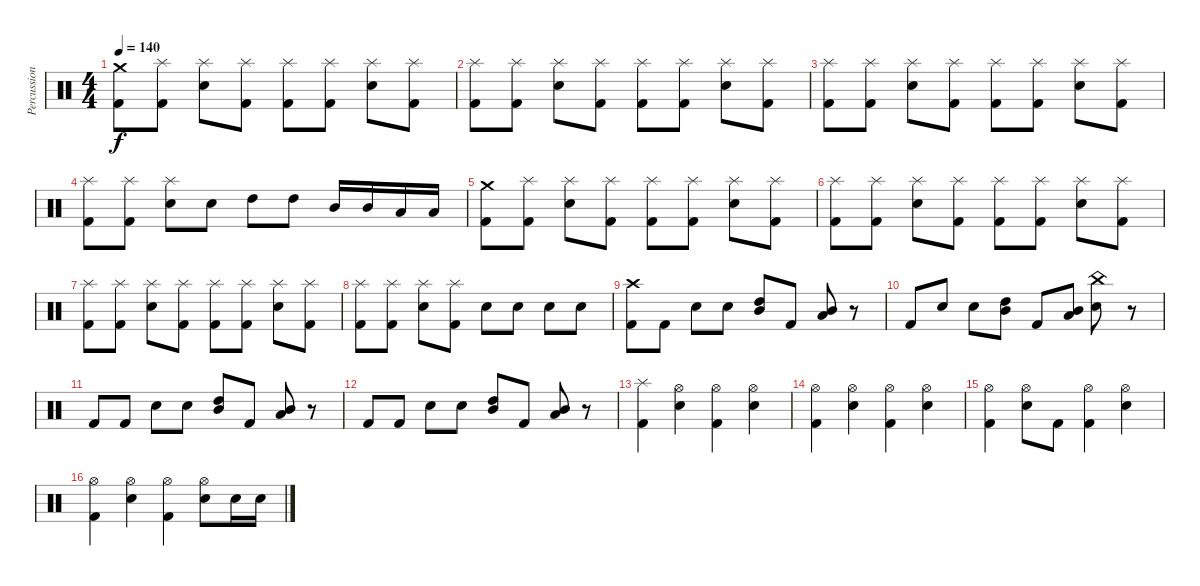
\track ("Percussion" "Percussion") {instrument percussion}
\staff {score}
\articulation defaults
\ts (4 4)
\tempo 140
\clef neutral
\ks c
("Crash medium (hit)" "Kick (hit) 2").8{dy f} ("Splash (hit)" "Kick (hit) 2").8 ("Splash (hit)" "Electric Snare (hit)").8 ("Splash (hit)" "Kick (hit) 2").8 ("Splash (hit)" "Kick (hit) 2").8 ("Splash (hit)" "Kick (hit) 2").8 ("Splash (hit)" "Electric Snare (hit)").8 ("Splash (hit)" "Kick (hit) 2").8 |
("Splash (hit)" "Kick (hit) 2").8 ("Splash (hit)" "Kick (hit) 2").8 ("Splash (hit)" "Electric Snare (hit)").8 ("Splash (hit)" "Kick (hit) 2").8 ("Splash (hit)" "Kick (hit) 2").8 ("Splash (hit)" "Kick (hit) 2").8 ("Splash (hit)" "Electric Snare (hit)").8 ("Splash (hit)" "Kick (hit) 2").8 |
("Splash (hit)" "Kick (hit) 2").8 ("Splash (hit)" "Kick (hit) 2").8 ("Splash (hit)" "Electric Snare (hit)").8 ("Splash (hit)" "Kick (hit) 2").8 ("Splash (hit)" "Kick (hit) 2").8 ("Splash (hit)" "Kick (hit) 2").8 ("Splash (hit)" "Electric Snare (hit)").8 ("Splash (hit)" "Kick (hit) 2").8 |
("Splash (hit)" "Kick (hit) 2").8 ("Splash (hit)" "Kick (hit) 2").8 ("Splash (hit)" "Electric Snare (hit)").8 "Electric Snare (hit)".8 "High Tom (hit)".8 "High Tom (hit)".8 "Mid Tom (hit)".16 "Mid Tom (hit)".16 "Low Tom (hit)".16 "Low Tom (hit)".16 |
("Crash medium (hit)" "Kick (hit) 2").8 ("Splash (hit)" "Kick (hit) 2").8 ("Splash (hit)" "Electric Snare (hit)").8 ("Splash (hit)" "Kick (hit) 2").8 ("Splash (hit)" "Kick (hit) 2").8 ("Splash (hit)" "Kick (hit) 2").8 ("Splash (hit)" "Electric Snare (hit)").8 ("Splash (hit)" "Kick (hit) 2").8 |
("Splash (hit)" "Kick (hit) 2").8 ("Splash (hit)" "Kick (hit) 2").8 ("Splash (hit)" "Electric Snare (hit)").8 ("Splash (hit)" "Kick (hit) 2").8 ("Splash (hit)" "Kick (hit) 2").8 ("Splash (hit)" "Kick (hit) 2").8 ("Splash (hit)" "Electric Snare (hit)").8 ("Splash (hit)" "Kick (hit) 2").8 |
("Splash (hit)" "Kick (hit) 2").8 ("Splash (hit)" "Kick (hit) 2").8 ("Splash (hit)" "Electric Snare (hit)").8 ("Splash (hit)" "Kick (hit) 2").8 ("Splash (hit)" "Kick (hit) 2").8 ("Splash (hit)" "Kick (hit) 2").8 ("Splash (hit)" "Electric Snare (hit)").8 ("Splash (hit)" "Kick (hit) 2").8 |
("Splash (hit)" "Kick (hit) 2").8 ("Splash (hit)" "Kick (hit) 2").8 ("Splash (hit)" "Electric Snare (hit)").8 ("Splash (hit)" "Kick (hit) 2").8 "Electric Snare (hit)".8 "Electric Snare (hit)".8 "Electric Snare (hit)".8 "Electric Snare (hit)".8 |
("Crash high (hit)" "Kick (hit) 2").8 "Kick (hit) 2".8 "Electric Snare (hit)".8 "Electric Snare (hit)".8 ("Mid Tom (hit)" "High Tom (hit)").8 "Kick (hit) 2".8 ("Low Tom (hit)" "Mid Tom (hit)").8 r.8 |
"Kick (hit) 2".8 "Electric Snare (hit)".8 "Electric Snare (hit)".8 ("High Tom (hit)" "Mid Tom (hit)").8 "Kick (hit) 2".8 ("Low Tom (hit)" "Mid Tom (hit)").8 ("China (hit)" "Electric Snare (hit)").8 r.8 |
"Kick (hit) 2".8 "Kick (hit) 2".8 "Electric Snare (hit)".8 "Electric Snare (hit)".8 ("Mid Tom (hit)" "High Tom (hit)").8 "Kick (hit) 2".8 ("Low Tom (hit)" "Mid Tom (hit)").8 r.8 |
"Kick (hit) 2".8 "Kick (hit) 2".8 "Electric Snare (hit)".8 "Electric Snare (hit)".8 ("Mid Tom (hit)" "High Tom (hit)").8 "Kick (hit) 2".8 ("Low Tom (hit)" "Mid Tom (hit)").8 r.8 |
("Splash (hit)" "Kick (hit) 2").4 ("Hi-Hat (open)" "Electric Snare (hit)").4 ("Hi-Hat (open)" "Kick (hit) 2").4 ("Hi-Hat (open)" "Electric Snare (hit)").4 |
("Hi-Hat (open)" "Kick (hit) 2").4 ("Hi-Hat (open)" "Electric Snare (hit)").4 ("Hi-Hat (open)" "Kick (hit) 2").4 ("Hi-Hat (open)" "Electric Snare (hit)").4 |
("Hi-Hat (open)" "Kick (hit) 2").4 ("Hi-Hat (open)" "Electric Snare (hit)").8 "Kick (hit) 2".8 ("Hi-Hat (open)" "Kick (hit) 2").4 ("Hi-Hat (open)" "Electric Snare (hit)").4 |
("Hi-Hat (open)" "Kick (hit) 2").4 ("Hi-Hat (open)" "Electric Snare (hit)").4 ("Hi-Hat (open)" "Kick (hit) 2").4 ("Hi-Hat (open)" "Electric Snare (hit)").8 "Electric Snare (hit)".16 "Electric Snare (hit)".16
